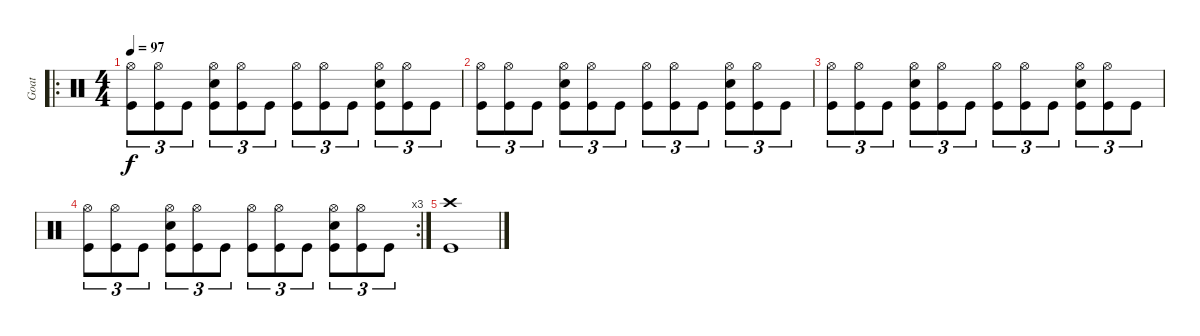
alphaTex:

\track ("Goat" "Goat") {instrument percussion}
\staff {score}
\articulation defaults
\ro
\ts (4 4)
\tempo 97
\clef neutral
\ks c
("Hi-Hat (open)" "Kick (hit)").8{tu (3 2) dy f} ("Hi-Hat (open)" "Kick (hit)").8{tu (3 2)} "Kick (hit)".8{tu (3 2)} ("Hi-Hat (open)" "Snare (hit) 2" "Kick (hit)").8{tu (3 2)} ("Hi-Hat (open)" "Kick (hit)").8{tu (3 2)} "Kick (hit)".8{tu (3 2)} ("Hi-Hat (open)" "Kick (hit)").8{tu (3 2)} ("Hi-Hat (open)" "Kick (hit)").8{tu (3 2)} "Kick (hit)".8{tu (3 2)} ("Hi-Hat (open)" "Snare (hit) 2" "Kick (hit)").8{tu (3 2)} ("Hi-Hat (open)" "Kick (hit)").8{tu (3 2)} "Kick (hit)".8{tu (3 2)} |
("Hi-Hat (open)" "Kick (hit)").8{tu (3 2)} ("Hi-Hat (open)" "Kick (hit)").8{tu (3 2)} "Kick (hit)".8{tu (3 2)} ("Hi-Hat (open)" "Snare (hit) 2" "Kick (hit)").8{tu (3 2)} ("Hi-Hat (open)" "Kick (hit)").8{tu (3 2)} "Kick (hit)".8{tu (3 2)} ("Hi-Hat (open)" "Kick (hit)").8{tu (3 2)} ("Hi-Hat (open)" "Kick (hit)").8{tu (3 2)} "Kick (hit)".8{tu (3 2)} ("Hi-Hat (open)" "Snare (hit) 2" "Kick (hit)").8{tu (3 2)} ("Hi-Hat (open)" "Kick (hit)").8{tu (3 2)} "Kick (hit)".8{tu (3 2)} |
("Hi-Hat (open)" "Kick (hit)").8{tu (3 2)} ("Hi-Hat (open)" "Kick (hit)").8{tu (3 2)} "Kick (hit)".8{tu (3 2)} ("Hi-Hat (open)" "Snare (hit) 2" "Kick (hit)").8{tu (3 2)} ("Hi-Hat (open)" "Kick (hit)").8{tu (3 2)} "Kick (hit)".8{tu (3 2)} ("Hi-Hat (open)" "Kick (hit)").8{tu (3 2)} ("Hi-Hat (open)" "Kick (hit)").8{tu (3 2)} "Kick (hit)".8{tu (3 2)} ("Hi-Hat (open)" "Snare (hit) 2" "Kick (hit)").8{tu (3 2)} ("Hi-Hat (open)" "Kick (hit)").8{tu (3 2)} "Kick (hit)".8{tu (3 2)} |
\rc 3
("Hi-Hat (open)" "Kick (hit)").8{tu (3 2)} ("Hi-Hat (open)" "Kick (hit)").8{tu (3 2)} "Kick (hit)".8{tu (3 2)} ("Hi-Hat (open)" "Snare (hit) 2" "Kick (hit)").8{tu (3 2)} ("Hi-Hat (open)" "Kick (hit)").8{tu (3 2)} "Kick (hit)".8{tu (3 2)} ("Hi-Hat (open)" "Kick (hit)").8{tu (3 2)} ("Hi-Hat (open)" "Kick (hit)").8{tu (3 2)} "Kick (hit)".8{tu (3 2)} ("Hi-Hat (open)" "Snare (hit) 2" "Kick (hit)").8{tu (3 2)} ("Hi-Hat (open)" "Kick (hit)").8{tu (3 2)} "Kick (hit)".8{tu (3 2)} |
("Crash high (hit)" "Kick (hit)").1
